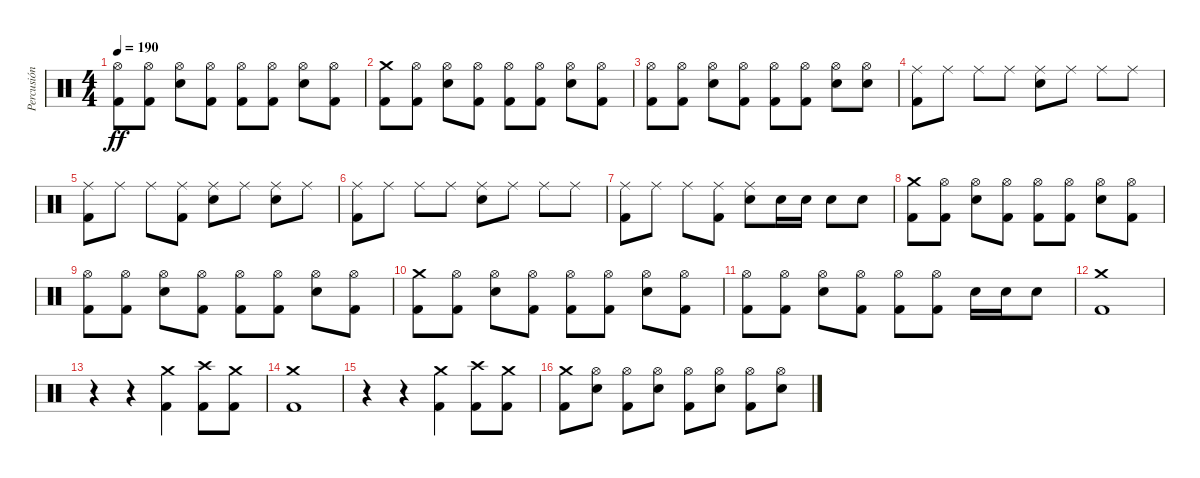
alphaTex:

\track ("Percusión" "Percusión") {instrument percussion}
\staff {score}
\articulation defaults
\ts (4 4)
\tempo 190
\clef neutral
\ks c
("Hi-Hat (open)" "Kick (hit) 2").8{dy ff} ("Hi-Hat (open)" "Kick (hit) 2").8 ("Hi-Hat (open)" "Snare (hit) 2").8 ("Hi-Hat (open)" "Kick (hit) 2").8 ("Hi-Hat (open)" "Kick (hit) 2").8 ("Hi-Hat (open)" "Kick (hit) 2").8 ("Hi-Hat (open)" "Snare (hit) 2").8 ("Hi-Hat (open)" "Kick (hit) 2").8 |
("Crash medium (hit)" "Kick (hit) 2").8 ("Hi-Hat (open)" "Kick (hit) 2").8 ("Hi-Hat (open)" "Snare (hit) 2").8 ("Hi-Hat (open)" "Kick (hit) 2").8 ("Hi-Hat (open)" "Kick (hit) 2").8 ("Hi-Hat (open)" "Kick (hit) 2").8 ("Hi-Hat (open)" "Snare (hit) 2").8 ("Hi-Hat (open)" "Kick (hit) 2").8 |
("Hi-Hat (open)" "Kick (hit) 2").8 ("Hi-Hat (open)" "Kick (hit) 2").8 ("Hi-Hat (open)" "Snare (hit) 2").8 ("Hi-Hat (open)" "Kick (hit) 2").8 ("Hi-Hat (open)" "Kick (hit) 2").8 ("Hi-Hat (open)" "Kick (hit) 2").8 ("Hi-Hat (open)" "Snare (hit) 2").8 ("Hi-Hat (open)" "Snare (hit) 2").8 |
("Ride (middle)" "Kick (hit) 2").8 "Ride (middle)".8 "Ride (middle)".8 "Ride (middle)".8 ("Ride (middle)" "Snare (hit) 2").8 "Ride (middle)".8 "Ride (middle)".8 "Ride (middle)".8 |
("Ride (middle)" "Kick (hit) 2").8 "Ride (middle)".8 "Ride (middle)".8 ("Ride (middle)" "Kick (hit) 2").8 ("Ride (middle)" "Snare (hit) 2").8 "Ride (middle)".8 ("Ride (middle)" "Snare (hit) 2").8 "Ride (middle)".8 |
("Ride (middle)" "Kick (hit) 2").8 "Ride (middle)".8 "Ride (middle)".8 "Ride (middle)".8 ("Ride (middle)" "Snare (hit) 2").8 "Ride (middle)".8 "Ride (middle)".8 "Ride (middle)".8 |
("Ride (middle)" "Kick (hit) 2").8 "Ride (middle)".8 "Ride (middle)".8 ("Ride (middle)" "Kick (hit) 2").8 ("Ride (middle)" "Snare (hit) 2").8 "Snare (hit) 2".16 "Snare (hit) 2".16 "Snare (hit) 2".8 "Snare (hit) 2".8 |
("Crash medium (hit)" "Kick (hit) 2").8 ("Hi-Hat (open)" "Kick (hit) 2").8 ("Hi-Hat (open)" "Snare (hit) 2").8 ("Hi-Hat (open)" "Kick (hit) 2").8 ("Hi-Hat (open)" "Kick (hit) 2").8 ("Hi-Hat (open)" "Kick (hit) 2").8 ("Hi-Hat (open)" "Snare (hit) 2").8 ("Hi-Hat (open)" "Kick (hit) 2").8 |
("Hi-Hat (open)" "Kick (hit) 2").8 ("Hi-Hat (open)" "Kick (hit) 2").8 ("Hi-Hat (open)" "Snare (hit) 2").8 ("Hi-Hat (open)" "Kick (hit) 2").8 ("Hi-Hat (open)" "Kick (hit) 2").8 ("Hi-Hat (open)" "Kick (hit) 2").8 ("Hi-Hat (open)" "Snare (hit) 2").8 ("Hi-Hat (open)" "Kick (hit) 2").8 |
("Crash medium (hit)" "Kick (hit) 2").8 ("Hi-Hat (open)" "Kick (hit) 2").8 ("Hi-Hat (open)" "Snare (hit) 2").8 ("Hi-Hat (open)" "Kick (hit) 2").8 ("Hi-Hat (open)" "Kick (hit) 2").8 ("Hi-Hat (open)" "Kick (hit) 2").8 ("Hi-Hat (open)" "Snare (hit) 2").8 ("Hi-Hat (open)" "Kick (hit) 2").8 |
("Hi-Hat (open)" "Kick (hit) 2").8 ("Hi-Hat (open)" "Kick (hit) 2").8 ("Hi-Hat (open)" "Snare (hit) 2").8 ("Hi-Hat (open)" "Kick (hit) 2").8 ("Hi-Hat (open)" "Kick (hit) 2").8 ("Hi-Hat (open)" "Kick (hit) 2").8 "Snare (hit) 2".16 "Snare (hit) 2".16 "Snare (hit) 2".8 |
("Crash medium (hit)" "Kick (hit) 2").1 |
r.4 r.4 ("Crash medium (hit)" "Kick (hit) 2").4 ("Crash high (hit)" "Kick (hit) 2").8 ("Crash medium (hit)" "Kick (hit) 2").8 |
("Crash medium (hit)" "Kick (hit) 2").1 |
r.4 r.4 ("Crash medium (hit)" "Kick (hit) 2").4 ("Crash high (hit)" "Kick (hit) 2").8 ("Crash medium (hit)" "Kick (hit) 2").8 |
("Crash medium (hit)" "Kick (hit) 2").8 ("Hi-Hat (open)" "Snare (hit) 2").8 ("Hi-Hat (open)" "Kick (hit) 2").8 ("Hi-Hat (open)" "Snare (hit) 2").8 ("Hi-Hat (open)" "Kick (hit) 2").8 ("Hi-Hat (open)" "Snare (hit) 2").8 ("Hi-Hat (open)" "Kick (hit) 2").8 ("Hi-Hat (open)" "Snare (hit) 2").8
